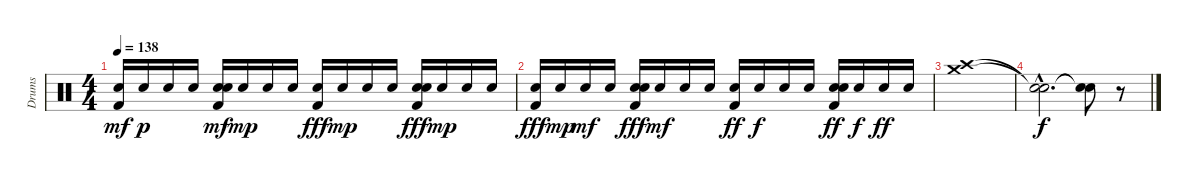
\track ("Drums" "Drums") {instrument percussion}
\staff {score}
\articulation defaults
\ts (4 4)
\tempo 138
\clef neutral
\ks c
("Kick (hit) 2" "Snare (hit) 2").16{dy mf} "Snare (hit) 2".16{dy p} "Snare (hit) 2".16 "Snare (hit) 2".16 ("Kick (hit) 2" "Hand Clap (hit)" "Snare (hit) 2").16{dy mf} "Snare (hit) 2".16{dy mp} "Snare (hit) 2".16 "Snare (hit) 2".16 ("Kick (hit) 2" "Snare (hit) 2").16{dy fff} "Snare (hit) 2".16{dy mp} "Snare (hit) 2".16 "Snare (hit) 2".16 ("Kick (hit) 2" "Hand Clap (hit)" "Snare (hit) 2").16{dy fff} "Snare (hit) 2".16{dy mp} "Snare (hit) 2".16 "Snare (hit) 2".16 |
("Kick (hit) 2" "Snare (hit) 2").16{dy fff} "Snare (hit) 2".16{dy mp} "Snare (hit) 2".16{dy mf} "Snare (hit) 2".16 ("Kick (hit) 2" "Hand Clap (hit)" "Snare (hit) 2").16{dy fff} "Snare (hit) 2".16{dy mf} "Snare (hit) 2".16 "Snare (hit) 2".16 ("Kick (hit) 2" "Snare (hit) 2").16{dy ff} "Snare (hit) 2".16{dy f} "Snare (hit) 2".16 "Snare (hit) 2".16 ("Kick (hit) 2" "Hand Clap (hit)" "Snare (hit) 2").16{dy ff} "Snare (hit) 2".16{dy f} "Snare (hit) 2".16{dy ff} "Snare (hit) 2".16 |
("Crash medium (hit)" "Crash high (hit)").1 |
("Snare (hit)"{hac t} "Snare (hit)"{hac t}).2{d dy f} ("Snare (hit)"{t} "Snare (hit)"{t}).8 r.8
